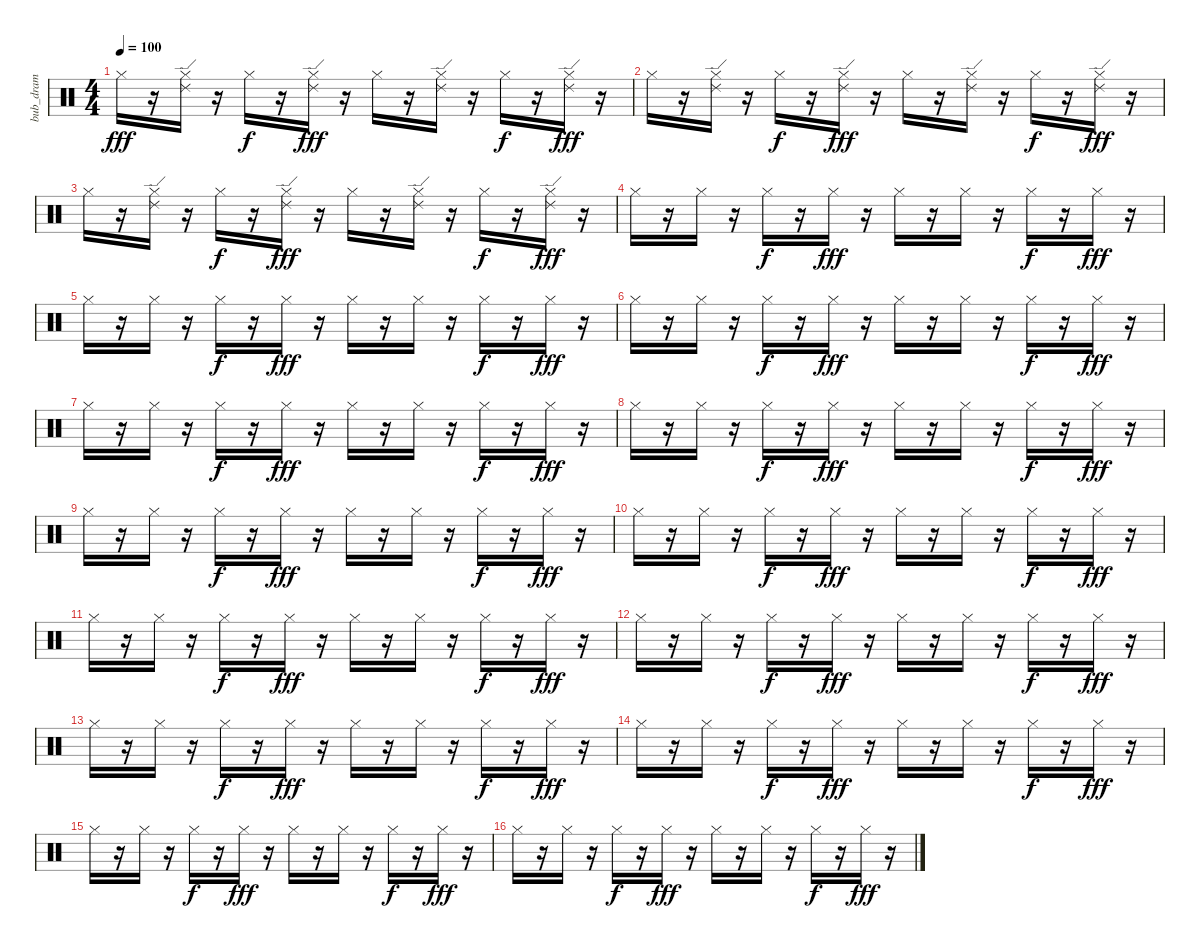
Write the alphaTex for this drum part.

\track ("bub_dram" "bub_dram") {instrument percussion}
\staff {score}
\articulation defaults
\ts (4 4)
\tempo 100
\clef neutral
\ks c "Hi-Hat (closed)".16{dy fff}
r.16 ("Ride (edge) 2" "Hi-Hat (closed)").16 r.16 "Hi-Hat (closed)".16{dy f} r.16 ("Ride (edge) 2" "Hi-Hat (closed)").16{dy fff} r.16 "Hi-Hat (closed)".16 r.16 ("Ride (edge) 2" "Hi-Hat (closed)").16 r.16 "Hi-Hat (closed)".16{dy f} r.16 ("Ride (edge) 2" "Hi-Hat (closed)").16{dy fff} r.16 |
"Hi-Hat (closed)".16 r.16 ("Ride (edge) 2" "Hi-Hat (closed)").16 r.16 "Hi-Hat (closed)".16{dy f} r.16 ("Ride (edge) 2" "Hi-Hat (closed)").16{dy fff} r.16 "Hi-Hat (closed)".16 r.16 ("Ride (edge) 2" "Hi-Hat (closed)").16 r.16 "Hi-Hat (closed)".16{dy f} r.16 ("Ride (edge) 2" "Hi-Hat (closed)").16{dy fff} r.16 |
"Hi-Hat (closed)".16 r.16 ("Ride (edge) 2" "Hi-Hat (closed)").16 r.16 "Hi-Hat (closed)".16{dy f} r.16 ("Ride (edge) 2" "Hi-Hat (closed)").16{dy fff} r.16 "Hi-Hat (closed)".16 r.16 ("Ride (edge) 2" "Hi-Hat (closed)").16 r.16 "Hi-Hat (closed)".16{dy f} r.16 ("Ride (edge) 2" "Hi-Hat (closed)").16{dy fff} r.16 |
"Hi-Hat (closed)".16 r.16 "Hi-Hat (closed)".16 r.16 "Hi-Hat (closed)".16{dy f} r.16 "Hi-Hat (closed)".16{dy fff} r.16 "Hi-Hat (closed)".16 r.16 "Hi-Hat (closed)".16 r.16 "Hi-Hat (closed)".16{dy f} r.16 "Hi-Hat (closed)".16{dy fff} r.16 |
"Hi-Hat (closed)".16 r.16 "Hi-Hat (closed)".16 r.16 "Hi-Hat (closed)".16{dy f} r.16 "Hi-Hat (closed)".16{dy fff} r.16 "Hi-Hat (closed)".16 r.16 "Hi-Hat (closed)".16 r.16 "Hi-Hat (closed)".16{dy f} r.16 "Hi-Hat (closed)".16{dy fff} r.16 |
"Hi-Hat (closed)".16 r.16 "Hi-Hat (closed)".16 r.16 "Hi-Hat (closed)".16{dy f} r.16 "Hi-Hat (closed)".16{dy fff} r.16 "Hi-Hat (closed)".16 r.16 "Hi-Hat (closed)".16 r.16 "Hi-Hat (closed)".16{dy f} r.16 "Hi-Hat (closed)".16{dy fff} r.16 |
"Hi-Hat (closed)".16 r.16 "Hi-Hat (closed)".16 r.16 "Hi-Hat (closed)".16{dy f} r.16 "Hi-Hat (closed)".16{dy fff} r.16 "Hi-Hat (closed)".16 r.16 "Hi-Hat (closed)".16 r.16 "Hi-Hat (closed)".16{dy f} r.16 "Hi-Hat (closed)".16{dy fff} r.16 |
"Hi-Hat (closed)".16 r.16 "Hi-Hat (closed)".16 r.16 "Hi-Hat (closed)".16{dy f} r.16 "Hi-Hat (closed)".16{dy fff} r.16 "Hi-Hat (closed)".16 r.16 "Hi-Hat (closed)".16 r.16 "Hi-Hat (closed)".16{dy f} r.16 "Hi-Hat (closed)".16{dy fff} r.16 |
"Hi-Hat (closed)".16 r.16 "Hi-Hat (closed)".16 r.16 "Hi-Hat (closed)".16{dy f} r.16 "Hi-Hat (closed)".16{dy fff} r.16 "Hi-Hat (closed)".16 r.16 "Hi-Hat (closed)".16 r.16 "Hi-Hat (closed)".16{dy f} r.16 "Hi-Hat (closed)".16{dy fff} r.16 |
"Hi-Hat (closed)".16 r.16 "Hi-Hat (closed)".16 r.16 "Hi-Hat (closed)".16{dy f} r.16 "Hi-Hat (closed)".16{dy fff} r.16 "Hi-Hat (closed)".16 r.16 "Hi-Hat (closed)".16 r.16 "Hi-Hat (closed)".16{dy f} r.16 "Hi-Hat (closed)".16{dy fff} r.16 |
"Hi-Hat (closed)".16 r.16 "Hi-Hat (closed)".16 r.16 "Hi-Hat (closed)".16{dy f} r.16 "Hi-Hat (closed)".16{dy fff} r.16 "Hi-Hat (closed)".16 r.16 "Hi-Hat (closed)".16 r.16 "Hi-Hat (closed)".16{dy f} r.16 "Hi-Hat (closed)".16{dy fff} r.16 |
"Hi-Hat (closed)".16 r.16 "Hi-Hat (closed)".16 r.16 "Hi-Hat (closed)".16{dy f} r.16 "Hi-Hat (closed)".16{dy fff} r.16 "Hi-Hat (closed)".16 r.16 "Hi-Hat (closed)".16 r.16 "Hi-Hat (closed)".16{dy f} r.16 "Hi-Hat (closed)".16{dy fff} r.16 |
"Hi-Hat (closed)".16 r.16 "Hi-Hat (closed)".16 r.16 "Hi-Hat (closed)".16{dy f} r.16 "Hi-Hat (closed)".16{dy fff} r.16 "Hi-Hat (closed)".16 r.16 "Hi-Hat (closed)".16 r.16 "Hi-Hat (closed)".16{dy f} r.16 "Hi-Hat (closed)".16{dy fff} r.16 |
"Hi-Hat (closed)".16 r.16 "Hi-Hat (closed)".16 r.16 "Hi-Hat (closed)".16{dy f} r.16 "Hi-Hat (closed)".16{dy fff} r.16 "Hi-Hat (closed)".16 r.16 "Hi-Hat (closed)".16 r.16 "Hi-Hat (closed)".16{dy f} r.16 "Hi-Hat (closed)".16{dy fff} r.16 |
"Hi-Hat (closed)".16 r.16 "Hi-Hat (closed)".16 r.16 "Hi-Hat (closed)".16{dy f} r.16 "Hi-Hat (closed)".16{dy fff} r.16 "Hi-Hat (closed)".16 r.16 "Hi-Hat (closed)".16 r.16 "Hi-Hat (closed)".16{dy f} r.16 "Hi-Hat (closed)".16{dy fff} r.16 |
"Hi-Hat (closed)".16 r.16 "Hi-Hat (closed)".16 r.16 "Hi-Hat (closed)".16{dy f} r.16 "Hi-Hat (closed)".16{dy fff} r.16 "Hi-Hat (closed)".16 r.16 "Hi-Hat (closed)".16 r.16 "Hi-Hat (closed)".16{dy f} r.16 "Hi-Hat (closed)".16{dy fff} r.16
